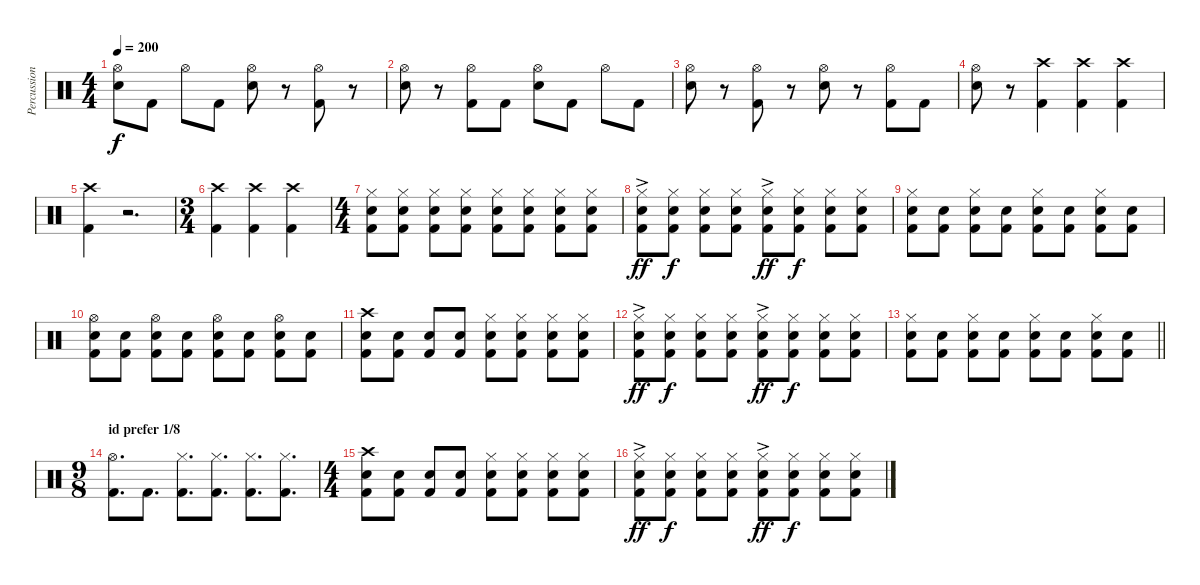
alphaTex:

\track ("Percussions" "Percussion") {instrument percussion}
\staff {score}
\articulation defaults
\ts (4 4)
\tempo 200
\clef neutral
\ks c
("Hi-Hat (open)" "Electric Snare (hit)").8{dy f} "Kick (hit) 2".8 "Hi-Hat (open)".8 "Kick (hit) 2".8 ("Hi-Hat (open)" "Electric Snare (hit)").8 r.8 ("Hi-Hat (open)" "Kick (hit) 2").8 r.8 |
("Hi-Hat (open)" "Electric Snare (hit)").8 r.8 ("Hi-Hat (open)" "Kick (hit) 2").8 "Kick (hit) 2".8 ("Hi-Hat (open)" "Electric Snare (hit)").8 "Kick (hit) 2".8 "Hi-Hat (open)".8 "Kick (hit) 2".8 |
("Hi-Hat (open)" "Electric Snare (hit)").8 r.8 ("Hi-Hat (open)" "Kick (hit) 2").8 r.8 ("Hi-Hat (open)" "Electric Snare (hit)").8 r.8 ("Hi-Hat (open)" "Kick (hit) 2").8 "Kick (hit) 2".8 |
("Hi-Hat (open)" "Electric Snare (hit)").8 r.8 ("Crash high (hit)" "Kick (hit) 2").4 ("Crash high (hit)" "Kick (hit) 2").4 ("Crash high (hit)" "Kick (hit) 2").4 |
("Crash high (hit)" "Kick (hit) 2").4 r.2{d} |
\ts (3 4)
("Crash high (hit)" "Kick (hit) 2").4 ("Crash high (hit)" "Kick (hit) 2").4 ("Crash high (hit)" "Kick (hit) 2").4 |
\ts (4 4)
("Hi-Hat (closed)" "Electric Snare (hit)" "Kick (hit) 2").8 ("Hi-Hat (closed)" "Electric Snare (hit)" "Kick (hit) 2").8 ("Hi-Hat (closed)" "Electric Snare (hit)" "Kick (hit) 2").8 ("Hi-Hat (closed)" "Electric Snare (hit)" "Kick (hit) 2").8 ("Hi-Hat (closed)" "Electric Snare (hit)" "Kick (hit) 2").8 ("Hi-Hat (closed)" "Electric Snare (hit)" "Kick (hit) 2").8 ("Hi-Hat (closed)" "Electric Snare (hit)" "Kick (hit) 2").8 ("Hi-Hat (closed)" "Electric Snare (hit)" "Kick (hit) 2").8 |
("Hi-Hat (closed)"{ac} "Electric Snare (hit)" "Kick (hit) 2").8{dy ff} ("Hi-Hat (closed)" "Electric Snare (hit)" "Kick (hit) 2").8{dy f} ("Hi-Hat (closed)" "Electric Snare (hit)" "Kick (hit) 2").8 ("Hi-Hat (closed)" "Electric Snare (hit)" "Kick (hit) 2").8 ("Hi-Hat (closed)"{ac} "Electric Snare (hit)" "Kick (hit) 2").8{dy ff} ("Hi-Hat (closed)" "Electric Snare (hit)" "Kick (hit) 2").8{dy f} ("Hi-Hat (closed)" "Electric Snare (hit)" "Kick (hit) 2").8 ("Hi-Hat (closed)" "Electric Snare (hit)" "Kick (hit) 2").8 |
("Hi-Hat (closed)" "Electric Snare (hit)" "Kick (hit) 2").8 ("Electric Snare (hit)" "Kick (hit) 2").8 ("Hi-Hat (closed)" "Electric Snare (hit)" "Kick (hit) 2").8 ("Electric Snare (hit)" "Kick (hit) 2").8 ("Hi-Hat (closed)" "Electric Snare (hit)" "Kick (hit) 2").8 ("Electric Snare (hit)" "Kick (hit) 2").8 ("Hi-Hat (closed)" "Electric Snare (hit)" "Kick (hit) 2").8 ("Electric Snare (hit)" "Kick (hit) 2").8 |
("Hi-Hat (open)" "Electric Snare (hit)" "Kick (hit) 2").8 ("Electric Snare (hit)" "Kick (hit) 2").8 ("Hi-Hat (open)" "Electric Snare (hit)" "Kick (hit) 2").8 ("Electric Snare (hit)" "Kick (hit) 2").8 ("Hi-Hat (open)" "Electric Snare (hit)" "Kick (hit) 2").8 ("Electric Snare (hit)" "Kick (hit) 2").8 ("Hi-Hat (open)" "Electric Snare (hit)" "Kick (hit) 2").8 ("Electric Snare (hit)" "Kick (hit) 2").8 |
("Crash high (hit)" "Electric Snare (hit)" "Kick (hit) 2").8 ("Electric Snare (hit)" "Kick (hit) 2").8 ("Electric Snare (hit)" "Kick (hit) 2").8 ("Electric Snare (hit)" "Kick (hit) 2").8 ("Hi-Hat (closed)" "Electric Snare (hit)" "Kick (hit) 2").8 ("Hi-Hat (closed)" "Electric Snare (hit)" "Kick (hit) 2").8 ("Hi-Hat (closed)" "Electric Snare (hit)" "Kick (hit) 2").8 ("Hi-Hat (closed)" "Electric Snare (hit)" "Kick (hit) 2").8 |
("Hi-Hat (closed)"{ac} "Electric Snare (hit)" "Kick (hit) 2").8{dy ff} ("Hi-Hat (closed)" "Electric Snare (hit)" "Kick (hit) 2").8{dy f} ("Hi-Hat (closed)" "Electric Snare (hit)" "Kick (hit) 2").8 ("Hi-Hat (closed)" "Electric Snare (hit)" "Kick (hit) 2").8 ("Hi-Hat (closed)"{ac} "Electric Snare (hit)" "Kick (hit) 2").8{dy ff} ("Hi-Hat (closed)" "Electric Snare (hit)" "Kick (hit) 2").8{dy f} ("Hi-Hat (closed)" "Electric Snare (hit)" "Kick (hit) 2").8 ("Hi-Hat (closed)" "Electric Snare (hit)" "Kick (hit) 2").8 |
\barLineRight lightlight
("Hi-Hat (closed)" "Electric Snare (hit)" "Kick (hit) 2").8 ("Electric Snare (hit)" "Kick (hit) 2").8 ("Hi-Hat (closed)" "Electric Snare (hit)" "Kick (hit) 2").8 ("Electric Snare (hit)" "Kick (hit) 2").8 ("Hi-Hat (closed)" "Electric Snare (hit)" "Kick (hit) 2").8 ("Electric Snare (hit)" "Kick (hit) 2").8 ("Hi-Hat (closed)" "Electric Snare (hit)" "Kick (hit) 2").8 ("Electric Snare (hit)" "Kick (hit) 2").8 |
\ts (9 8)
\section ("" "id prefer 1/8")
("Hi-Hat (open)" "Kick (hit) 2").8{d} "Kick (hit) 2".8{d} ("Hi-Hat (closed)" "Kick (hit) 2").8{d} ("Hi-Hat (closed)" "Kick (hit) 2").8{d} ("Hi-Hat (closed)" "Kick (hit) 2").8{d} ("Hi-Hat (closed)" "Kick (hit) 2").8{d} |
\ts (4 4)
("Crash high (hit)" "Electric Snare (hit)" "Kick (hit) 2").8 ("Electric Snare (hit)" "Kick (hit) 2").8 ("Electric Snare (hit)" "Kick (hit) 2").8 ("Electric Snare (hit)" "Kick (hit) 2").8 ("Hi-Hat (closed)" "Electric Snare (hit)" "Kick (hit) 2").8 ("Hi-Hat (closed)" "Electric Snare (hit)" "Kick (hit) 2").8 ("Hi-Hat (closed)" "Electric Snare (hit)" "Kick (hit) 2").8 ("Hi-Hat (closed)" "Electric Snare (hit)" "Kick (hit) 2").8 |
("Hi-Hat (closed)"{ac} "Electric Snare (hit)" "Kick (hit) 2").8{dy ff} ("Hi-Hat (closed)" "Electric Snare (hit)" "Kick (hit) 2").8{dy f} ("Hi-Hat (closed)" "Electric Snare (hit)" "Kick (hit) 2").8 ("Hi-Hat (closed)" "Electric Snare (hit)" "Kick (hit) 2").8 ("Hi-Hat (closed)"{ac} "Electric Snare (hit)" "Kick (hit) 2").8{dy ff} ("Hi-Hat (closed)" "Electric Snare (hit)" "Kick (hit) 2").8{dy f} ("Hi-Hat (closed)" "Electric Snare (hit)" "Kick (hit) 2").8 ("Hi-Hat (closed)" "Electric Snare (hit)" "Kick (hit) 2").8
